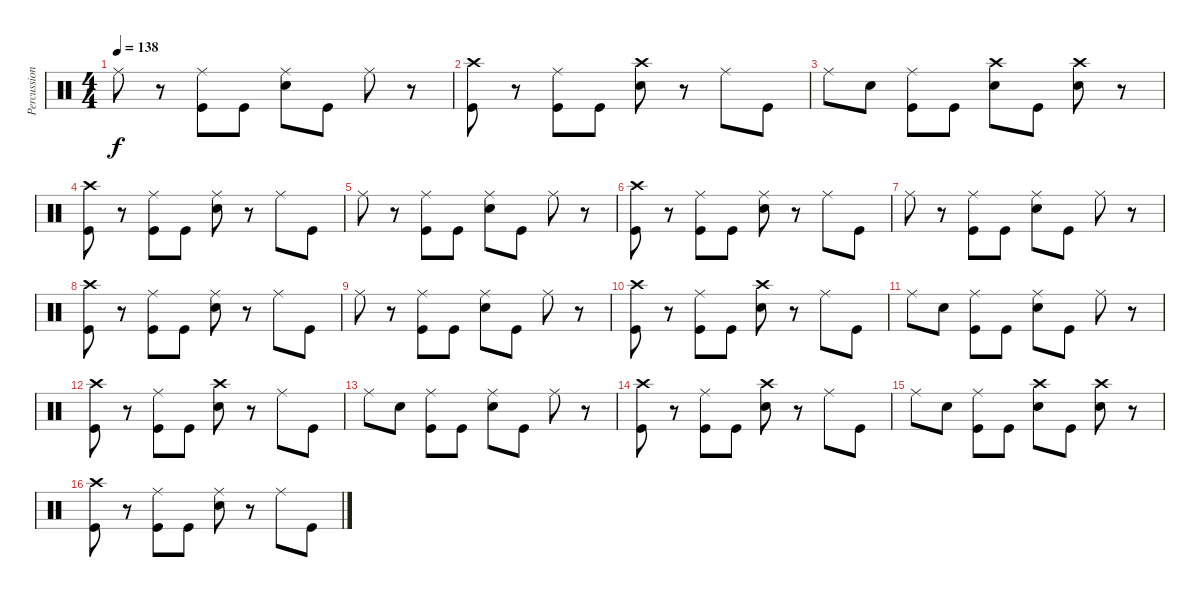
\track ("Percussion" "Percussion") {instrument percussion}
\staff {score}
\articulation defaults
\ts (4 4)
\tempo 138
\clef neutral
\ks c "Ride (middle)".8{dy f}
r.8 ("Ride (middle)" "Kick (hit)").8 "Kick (hit)".8 ("Snare (hit) 2" "Ride (middle)").8 "Kick (hit)".8 "Ride (middle)".8 r.8 |
("Crash high (hit)" "Kick (hit)").8 r.8 ("Ride (middle)" "Kick (hit)").8 "Kick (hit)".8 ("Snare (hit) 2" "Crash high (hit)").8 r.8 "Ride (middle)".8 "Kick (hit)".8 |
"Ride (middle)".8 "Snare (hit) 2".8 ("Ride (middle)" "Kick (hit)").8 "Kick (hit)".8 ("Snare (hit) 2" "Crash high (hit)").8 "Kick (hit)".8 ("Snare (hit) 2" "Crash high (hit)").8 r.8 |
("Crash high (hit)" "Kick (hit)").8 r.8 ("Ride (middle)" "Kick (hit)").8 "Kick (hit)".8 ("Snare (hit) 2" "Ride (middle)").8 r.8 "Ride (middle)".8 "Kick (hit)".8 |
"Ride (middle)".8 r.8 ("Ride (middle)" "Kick (hit)").8 "Kick (hit)".8 ("Snare (hit) 2" "Ride (middle)").8 "Kick (hit)".8 "Ride (middle)".8 r.8 |
("Crash high (hit)" "Kick (hit)").8 r.8 ("Ride (middle)" "Kick (hit)").8 "Kick (hit)".8 ("Snare (hit) 2" "Ride (middle)").8 r.8 "Ride (middle)".8 "Kick (hit)".8 |
"Ride (middle)".8 r.8 ("Ride (middle)" "Kick (hit)").8 "Kick (hit)".8 ("Snare (hit) 2" "Ride (middle)").8 "Kick (hit)".8 "Ride (middle)".8 r.8 |
("Crash high (hit)" "Kick (hit)").8 r.8 ("Ride (middle)" "Kick (hit)").8 "Kick (hit)".8 ("Snare (hit) 2" "Ride (middle)").8 r.8 "Ride (middle)".8 "Kick (hit)".8 |
"Ride (middle)".8 r.8 ("Ride (middle)" "Kick (hit)").8 "Kick (hit)".8 ("Snare (hit) 2" "Ride (middle)").8 "Kick (hit)".8 "Ride (middle)".8 r.8 |
("Crash high (hit)" "Kick (hit)").8 r.8 ("Ride (middle)" "Kick (hit)").8 "Kick (hit)".8 ("Snare (hit) 2" "Crash high (hit)").8 r.8 "Ride (middle)".8 "Kick (hit)".8 |
"Ride (middle)".8 "Snare (hit) 2".8 ("Ride (middle)" "Kick (hit)").8 "Kick (hit)".8 ("Snare (hit) 2" "Ride (middle)").8 "Kick (hit)".8 "Ride (middle)".8 r.8 |
("Crash high (hit)" "Kick (hit)").8 r.8 ("Ride (middle)" "Kick (hit)").8 "Kick (hit)".8 ("Snare (hit) 2" "Crash high (hit)").8 r.8 "Ride (middle)".8 "Kick (hit)".8 |
"Ride (middle)".8 "Snare (hit) 2".8 ("Ride (middle)" "Kick (hit)").8 "Kick (hit)".8 ("Snare (hit) 2" "Ride (middle)").8 "Kick (hit)".8 "Ride (middle)".8 r.8 |
("Crash high (hit)" "Kick (hit)").8 r.8 ("Ride (middle)" "Kick (hit)").8 "Kick (hit)".8 ("Snare (hit) 2" "Crash high (hit)").8 r.8 "Ride (middle)".8 "Kick (hit)".8 |
"Ride (middle)".8 "Snare (hit) 2".8 ("Ride (middle)" "Kick (hit)").8 "Kick (hit)".8 ("Snare (hit) 2" "Crash high (hit)").8 "Kick (hit)".8 ("Snare (hit) 2" "Crash high (hit)").8 r.8 |
("Crash high (hit)" "Kick (hit)").8 r.8 ("Ride (middle)" "Kick (hit)").8 "Kick (hit)".8 ("Snare (hit) 2" "Ride (middle)").8 r.8 "Ride (middle)".8 "Kick (hit)".8
